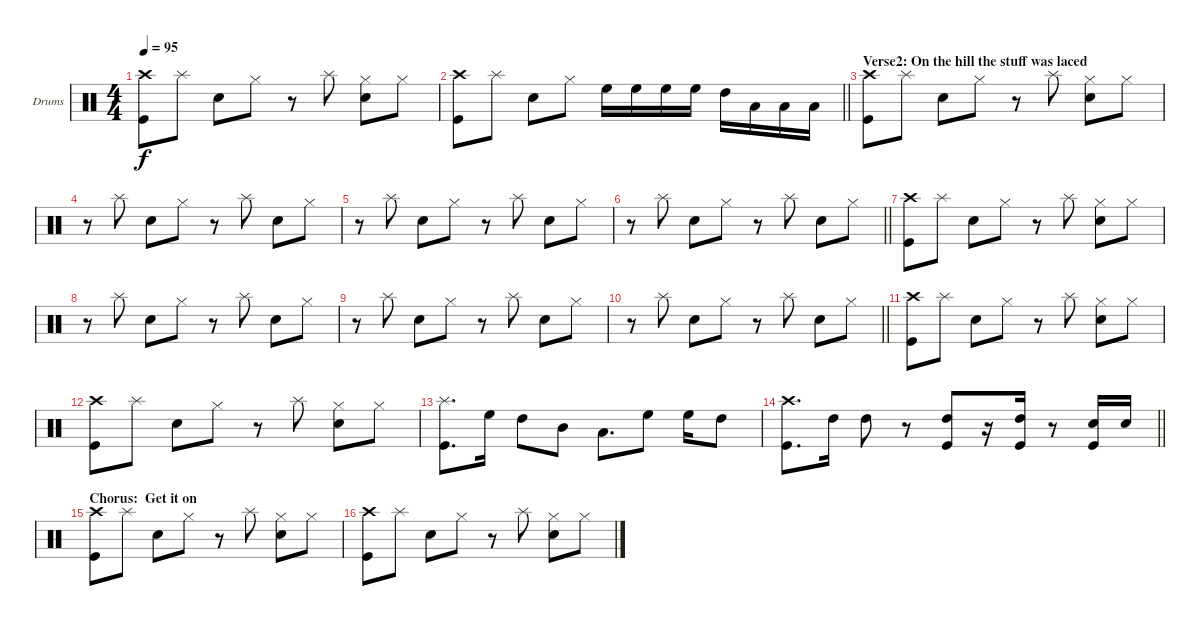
\bracketExtendMode groupsimilarinstruments
\firstSystemTrackNameOrientation horizontal
\otherSystemsTrackNameOrientation horizontal
\track ("Drumkit" "Drums") {instrument percussion}
\staff {score}
\articulation defaults
\ts (4 4)
\tempo 95
\clef neutral
\ks c
("Crash high (hit)" "Kick (hit)").8{dy f} "Splash (hit)".8 "Snare (hit) 2".8 "Hi-Hat (closed)".8 r.8 "Splash (hit)".8 ("Hi-Hat (closed)" "Snare (hit) 2").8 "Hi-Hat (closed)".8 |
\barLineRight lightlight
("Crash high (hit)" "Kick (hit)").8 "Splash (hit)".8 "Snare (hit) 2".8 "Hi-Hat (closed)".8 "High Floor Tom (hit)".16 "High Floor Tom (hit)".16 "High Floor Tom (hit)".16 "High Floor Tom (hit)".16 "High Tom (hit)".16 "Low Tom (hit)".16 "Low Tom (hit)".16 "Low Tom (hit)".16 |
\section ("" "Verse2: On the hill the stuff was laced")
("Crash high (hit)" "Kick (hit)").8 "Splash (hit)".8 "Snare (hit) 2".8 "Hi-Hat (closed)".8 r.8 "Splash (hit)".8 ("Hi-Hat (closed)" "Snare (hit) 2").8 "Hi-Hat (closed)".8 |
r.8 "Splash (hit)".8 "Snare (hit) 2".8 "Hi-Hat (closed)".8 r.8 "Splash (hit)".8 "Snare (hit) 2".8 "Hi-Hat (closed)".8 |
r.8 "Splash (hit)".8 "Snare (hit) 2".8 "Hi-Hat (closed)".8 r.8 "Splash (hit)".8 "Snare (hit) 2".8 "Hi-Hat (closed)".8 |
\barLineRight lightlight
r.8 "Splash (hit)".8 "Snare (hit) 2".8 "Hi-Hat (closed)".8 r.8 "Splash (hit)".8 "Snare (hit) 2".8 "Hi-Hat (closed)".8 |
("Crash high (hit)" "Kick (hit)").8 "Splash (hit)".8 "Snare (hit) 2".8 "Hi-Hat (closed)".8 r.8 "Splash (hit)".8 ("Hi-Hat (closed)" "Snare (hit) 2").8 "Hi-Hat (closed)".8 |
r.8 "Splash (hit)".8 "Snare (hit) 2".8 "Hi-Hat (closed)".8 r.8 "Splash (hit)".8 "Snare (hit) 2".8 "Hi-Hat (closed)".8 |
r.8 "Splash (hit)".8 "Snare (hit) 2".8 "Hi-Hat (closed)".8 r.8 "Splash (hit)".8 "Snare (hit) 2".8 "Hi-Hat (closed)".8 |
\barLineRight lightlight
r.8 "Splash (hit)".8 "Snare (hit) 2".8 "Hi-Hat (closed)".8 r.8 "Splash (hit)".8 "Snare (hit) 2".8 "Hi-Hat (closed)".8 |
("Crash high (hit)" "Kick (hit)").8 "Splash (hit)".8 "Snare (hit) 2".8 "Hi-Hat (closed)".8 r.8 "Splash (hit)".8 ("Hi-Hat (closed)" "Snare (hit) 2").8 "Hi-Hat (closed)".8 |
("Crash high (hit)" "Kick (hit)").8 "Splash (hit)".8 "Snare (hit) 2".8 "Hi-Hat (closed)".8 r.8 "Splash (hit)".8 ("Hi-Hat (closed)" "Snare (hit) 2").8 "Hi-Hat (closed)".8 |
("Splash (hit)" "Kick (hit)").8{d} "High Floor Tom (hit)".16 "High Tom (hit)".8 "Mid Tom (hit)".8 "Low Tom (hit)".8{d} "High Floor Tom (hit)".8 "High Floor Tom (hit)".16 "High Tom (hit)".8 |
\barLineRight lightlight
("Crash high (hit)" "Kick (hit)").8{d} "High Tom (hit)".16 "High Tom (hit)".8 r.8 ("High Tom (hit)" "Kick (hit)").8 r.16 ("High Tom (hit)" "Kick (hit)").16 r.8 ("Snare (hit) 2" "Kick (hit)").16 "Snare (hit) 2".16 |
\section ("" "Chorus:  Get it on")
("Crash high (hit)" "Kick (hit)").8 "Splash (hit)".8 "Snare (hit) 2".8 "Hi-Hat (closed)".8 r.8 "Splash (hit)".8 ("Hi-Hat (closed)" "Snare (hit) 2").8 "Hi-Hat (closed)".8 |
("Crash high (hit)" "Kick (hit)").8 "Splash (hit)".8 "Snare (hit) 2".8 "Hi-Hat (closed)".8 r.8 "Splash (hit)".8 ("Hi-Hat (closed)" "Snare (hit) 2").8 "Hi-Hat (closed)".8
